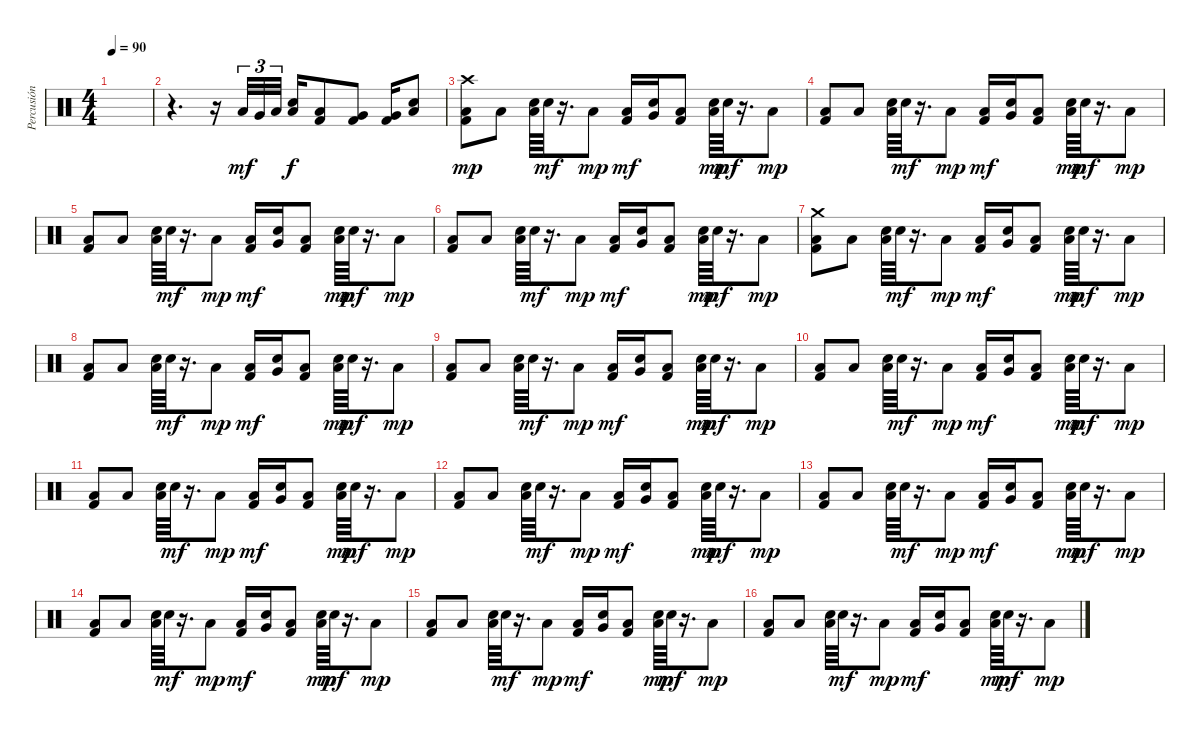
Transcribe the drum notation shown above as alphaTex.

\track ("Percusión" "Percusión") {instrument percussion}
\staff {score}
\articulation defaults
\ts (4 4)
\tempo 90
\clef neutral
\ks c
|
r.4{d} r.16 "Low Floor Tom (hit)".32{tu (3 2) dy mf} "Very Low Tom (hit)".32{tu (3 2)} "Low Tom (hit)".32{tu (3 2)} ("Snare (hit) 2" "Low Floor Tom (hit)").16{dy f} ("Low Floor Tom (hit)" "Kick (hit) 2").8 ("Very Low Tom (hit)" "Kick (hit) 2").8 ("Very Low Tom (hit)" "Kick (hit) 2").16 ("Electric Snare (hit)" "Low Floor Tom (hit)").8 |
("Crash high (hit)" "Low Floor Tom (hit)" "Kick (hit) 2").8{dy mp} "Low Floor Tom (hit)".8 ("Low Floor Tom (hit)" "Electric Snare (hit)").64 "Electric Snare (hit)".64{dy mf} r.16{d} "Low Floor Tom (hit)".8{dy mp} ("Low Floor Tom (hit)" "Kick (hit) 2").16{dy mf} ("Very Low Tom (hit)" "Electric Snare (hit)").16 ("Low Floor Tom (hit)" "Kick (hit) 2").8 ("Low Floor Tom (hit)" "Electric Snare (hit)").64{dy mp} "Electric Snare (hit)".64{dy mf} r.16{d} "Low Floor Tom (hit)".8{dy mp} |
("Low Floor Tom (hit)" "Kick (hit) 2").8 "Low Floor Tom (hit)".8 ("Low Floor Tom (hit)" "Electric Snare (hit)").64 "Electric Snare (hit)".64{dy mf} r.16{d} "Low Floor Tom (hit)".8{dy mp} ("Low Floor Tom (hit)" "Kick (hit) 2").16{dy mf} ("Very Low Tom (hit)" "Electric Snare (hit)").16 ("Low Floor Tom (hit)" "Kick (hit) 2").8 ("Low Floor Tom (hit)" "Electric Snare (hit)").64{dy mp} "Electric Snare (hit)".64{dy mf} r.16{d} "Low Floor Tom (hit)".8{dy mp} |
("Low Floor Tom (hit)" "Kick (hit) 2").8 "Low Floor Tom (hit)".8 ("Low Floor Tom (hit)" "Electric Snare (hit)").64 "Electric Snare (hit)".64{dy mf} r.16{d} "Low Floor Tom (hit)".8{dy mp} ("Low Floor Tom (hit)" "Kick (hit) 2").16{dy mf} ("Very Low Tom (hit)" "Electric Snare (hit)").16 ("Low Floor Tom (hit)" "Kick (hit) 2").8 ("Low Floor Tom (hit)" "Electric Snare (hit)").64{dy mp} "Electric Snare (hit)".64{dy mf} r.16{d} "Low Floor Tom (hit)".8{dy mp} |
("Low Floor Tom (hit)" "Kick (hit) 2").8 "Low Floor Tom (hit)".8 ("Low Floor Tom (hit)" "Electric Snare (hit)").64 "Electric Snare (hit)".64{dy mf} r.16{d} "Low Floor Tom (hit)".8{dy mp} ("Low Floor Tom (hit)" "Kick (hit) 2").16{dy mf} ("Very Low Tom (hit)" "Electric Snare (hit)").16 ("Low Floor Tom (hit)" "Kick (hit) 2").8 ("Low Floor Tom (hit)" "Electric Snare (hit)").64{dy mp} "Electric Snare (hit)".64{dy mf} r.16{d} "Low Floor Tom (hit)".8{dy mp} |
("Crash medium (hit)" "Low Floor Tom (hit)" "Kick (hit) 2").8 "Low Floor Tom (hit)".8 ("Low Floor Tom (hit)" "Electric Snare (hit)").64 "Electric Snare (hit)".64{dy mf} r.16{d} "Low Floor Tom (hit)".8{dy mp} ("Low Floor Tom (hit)" "Kick (hit) 2").16{dy mf} ("Very Low Tom (hit)" "Electric Snare (hit)").16 ("Low Floor Tom (hit)" "Kick (hit) 2").8 ("Low Floor Tom (hit)" "Electric Snare (hit)").64{dy mp} "Electric Snare (hit)".64{dy mf} r.16{d} "Low Floor Tom (hit)".8{dy mp} |
("Low Floor Tom (hit)" "Kick (hit) 2").8 "Low Floor Tom (hit)".8 ("Low Floor Tom (hit)" "Electric Snare (hit)").64 "Electric Snare (hit)".64{dy mf} r.16{d} "Low Floor Tom (hit)".8{dy mp} ("Low Floor Tom (hit)" "Kick (hit) 2").16{dy mf} ("Very Low Tom (hit)" "Electric Snare (hit)").16 ("Low Floor Tom (hit)" "Kick (hit) 2").8 ("Low Floor Tom (hit)" "Electric Snare (hit)").64{dy mp} "Electric Snare (hit)".64{dy mf} r.16{d} "Low Floor Tom (hit)".8{dy mp} |
("Low Floor Tom (hit)" "Kick (hit) 2").8 "Low Floor Tom (hit)".8 ("Low Floor Tom (hit)" "Electric Snare (hit)").64 "Electric Snare (hit)".64{dy mf} r.16{d} "Low Floor Tom (hit)".8{dy mp} ("Low Floor Tom (hit)" "Kick (hit) 2").16{dy mf} ("Very Low Tom (hit)" "Electric Snare (hit)").16 ("Low Floor Tom (hit)" "Kick (hit) 2").8 ("Low Floor Tom (hit)" "Electric Snare (hit)").64{dy mp} "Electric Snare (hit)".64{dy mf} r.16{d} "Low Floor Tom (hit)".8{dy mp} |
("Low Floor Tom (hit)" "Kick (hit) 2").8 "Low Floor Tom (hit)".8 ("Low Floor Tom (hit)" "Electric Snare (hit)").64 "Electric Snare (hit)".64{dy mf} r.16{d} "Low Floor Tom (hit)".8{dy mp} ("Low Floor Tom (hit)" "Kick (hit) 2").16{dy mf} ("Very Low Tom (hit)" "Electric Snare (hit)").16 ("Low Floor Tom (hit)" "Kick (hit) 2").8 ("Low Floor Tom (hit)" "Electric Snare (hit)").64{dy mp} "Electric Snare (hit)".64{dy mf} r.16{d} "Low Floor Tom (hit)".8{dy mp} |
("Low Floor Tom (hit)" "Kick (hit) 2").8 "Low Floor Tom (hit)".8 ("Low Floor Tom (hit)" "Electric Snare (hit)").64 "Electric Snare (hit)".64{dy mf} r.16{d} "Low Floor Tom (hit)".8{dy mp} ("Low Floor Tom (hit)" "Kick (hit) 2").16{dy mf} ("Very Low Tom (hit)" "Electric Snare (hit)").16 ("Low Floor Tom (hit)" "Kick (hit) 2").8 ("Low Floor Tom (hit)" "Electric Snare (hit)").64{dy mp} "Electric Snare (hit)".64{dy mf} r.16{d} "Low Floor Tom (hit)".8{dy mp} |
("Low Floor Tom (hit)" "Kick (hit) 2").8 "Low Floor Tom (hit)".8 ("Low Floor Tom (hit)" "Electric Snare (hit)").64 "Electric Snare (hit)".64{dy mf} r.16{d} "Low Floor Tom (hit)".8{dy mp} ("Low Floor Tom (hit)" "Kick (hit) 2").16{dy mf} ("Very Low Tom (hit)" "Electric Snare (hit)").16 ("Low Floor Tom (hit)" "Kick (hit) 2").8 ("Low Floor Tom (hit)" "Electric Snare (hit)").64{dy mp} "Electric Snare (hit)".64{dy mf} r.16{d} "Low Floor Tom (hit)".8{dy mp} |
("Low Floor Tom (hit)" "Kick (hit) 2").8 "Low Floor Tom (hit)".8 ("Low Floor Tom (hit)" "Electric Snare (hit)").64 "Electric Snare (hit)".64{dy mf} r.16{d} "Low Floor Tom (hit)".8{dy mp} ("Low Floor Tom (hit)" "Kick (hit) 2").16{dy mf} ("Very Low Tom (hit)" "Electric Snare (hit)").16 ("Low Floor Tom (hit)" "Kick (hit) 2").8 ("Low Floor Tom (hit)" "Electric Snare (hit)").64{dy mp} "Electric Snare (hit)".64{dy mf} r.16{d} "Low Floor Tom (hit)".8{dy mp} |
("Low Floor Tom (hit)" "Kick (hit) 2").8 "Low Floor Tom (hit)".8 ("Low Floor Tom (hit)" "Electric Snare (hit)").64 "Electric Snare (hit)".64{dy mf} r.16{d} "Low Floor Tom (hit)".8{dy mp} ("Low Floor Tom (hit)" "Kick (hit) 2").16{dy mf} ("Very Low Tom (hit)" "Electric Snare (hit)").16 ("Low Floor Tom (hit)" "Kick (hit) 2").8 ("Low Floor Tom (hit)" "Electric Snare (hit)").64{dy mp} "Electric Snare (hit)".64{dy mf} r.16{d} "Low Floor Tom (hit)".8{dy mp} |
("Low Floor Tom (hit)" "Kick (hit) 2").8 "Low Floor Tom (hit)".8 ("Low Floor Tom (hit)" "Electric Snare (hit)").64 "Electric Snare (hit)".64{dy mf} r.16{d} "Low Floor Tom (hit)".8{dy mp} ("Low Floor Tom (hit)" "Kick (hit) 2").16{dy mf} ("Very Low Tom (hit)" "Electric Snare (hit)").16 ("Low Floor Tom (hit)" "Kick (hit) 2").8 ("Low Floor Tom (hit)" "Electric Snare (hit)").64{dy mp} "Electric Snare (hit)".64{dy mf} r.16{d} "Low Floor Tom (hit)".8{dy mp} |
("Low Floor Tom (hit)" "Kick (hit) 2").8 "Low Floor Tom (hit)".8 ("Low Floor Tom (hit)" "Electric Snare (hit)").64 "Electric Snare (hit)".64{dy mf} r.16{d} "Low Floor Tom (hit)".8{dy mp} ("Low Floor Tom (hit)" "Kick (hit) 2").16{dy mf} ("Very Low Tom (hit)" "Electric Snare (hit)").16 ("Low Floor Tom (hit)" "Kick (hit) 2").8 ("Low Floor Tom (hit)" "Electric Snare (hit)").64{dy mp} "Electric Snare (hit)".64{dy mf} r.16{d} "Low Floor Tom (hit)".8{dy mp}
